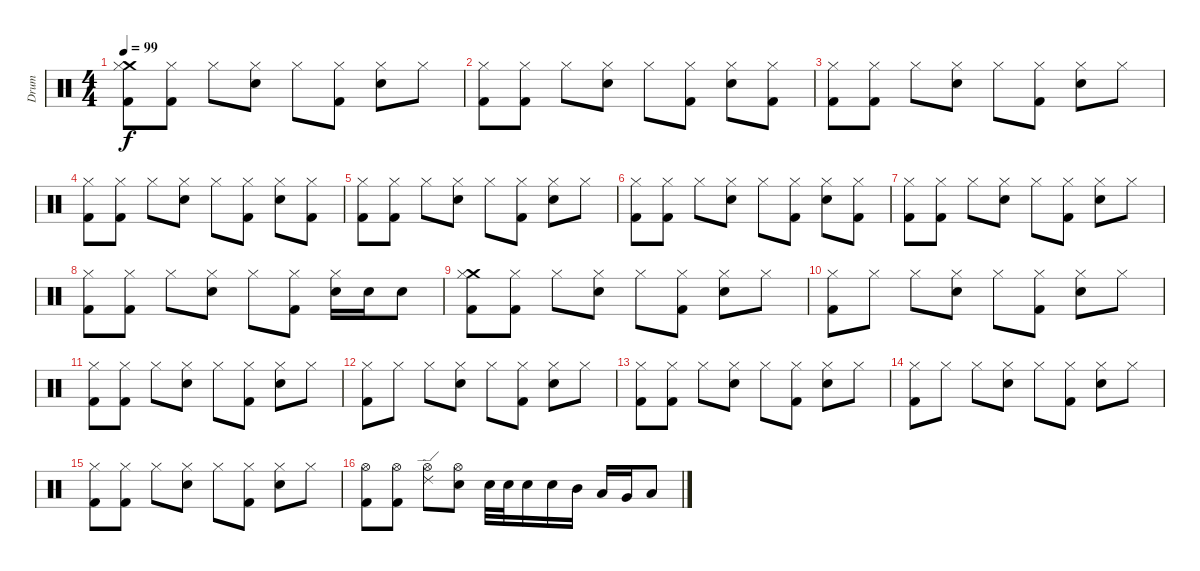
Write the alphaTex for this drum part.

\track ("Drum" "Drum") {instrument percussion}
\staff {score}
\articulation defaults
\ts (4 4)
\tempo 99
\clef neutral
\ks c
("Crash medium (hit)" "Hi-Hat (closed)" "Kick (hit) 2").8{dy f} ("Hi-Hat (closed)" "Kick (hit) 2").8 "Hi-Hat (closed)".8 ("Hi-Hat (closed)" "Electric Snare (hit)").8 "Hi-Hat (closed)".8 ("Hi-Hat (closed)" "Kick (hit) 2").8 ("Hi-Hat (closed)" "Electric Snare (hit)").8 "Hi-Hat (closed)".8 |
("Hi-Hat (closed)" "Kick (hit) 2").8 ("Hi-Hat (closed)" "Kick (hit) 2").8 "Hi-Hat (closed)".8 ("Hi-Hat (closed)" "Electric Snare (hit)").8 "Hi-Hat (closed)".8 ("Hi-Hat (closed)" "Kick (hit) 2").8 ("Hi-Hat (closed)" "Electric Snare (hit)").8 ("Hi-Hat (closed)" "Kick (hit) 2").8 |
("Hi-Hat (closed)" "Kick (hit) 2").8 ("Hi-Hat (closed)" "Kick (hit) 2").8 "Hi-Hat (closed)".8 ("Hi-Hat (closed)" "Electric Snare (hit)").8 "Hi-Hat (closed)".8 ("Hi-Hat (closed)" "Kick (hit) 2").8 ("Hi-Hat (closed)" "Electric Snare (hit)").8 "Hi-Hat (closed)".8 |
("Hi-Hat (closed)" "Kick (hit) 2").8 ("Hi-Hat (closed)" "Kick (hit) 2").8 "Hi-Hat (closed)".8 ("Hi-Hat (closed)" "Electric Snare (hit)").8 "Hi-Hat (closed)".8 ("Hi-Hat (closed)" "Kick (hit) 2").8 ("Hi-Hat (closed)" "Electric Snare (hit)").8 ("Hi-Hat (closed)" "Kick (hit) 2").8 |
("Hi-Hat (closed)" "Kick (hit) 2").8 ("Hi-Hat (closed)" "Kick (hit) 2").8 "Hi-Hat (closed)".8 ("Hi-Hat (closed)" "Electric Snare (hit)").8 "Hi-Hat (closed)".8 ("Hi-Hat (closed)" "Kick (hit) 2").8 ("Hi-Hat (closed)" "Electric Snare (hit)").8 "Hi-Hat (closed)".8 |
("Hi-Hat (closed)" "Kick (hit) 2").8 ("Hi-Hat (closed)" "Kick (hit) 2").8 "Hi-Hat (closed)".8 ("Hi-Hat (closed)" "Electric Snare (hit)").8 "Hi-Hat (closed)".8 ("Hi-Hat (closed)" "Kick (hit) 2").8 ("Hi-Hat (closed)" "Electric Snare (hit)").8 ("Hi-Hat (closed)" "Kick (hit) 2").8 |
("Hi-Hat (closed)" "Kick (hit) 2").8 ("Hi-Hat (closed)" "Kick (hit) 2").8 "Hi-Hat (closed)".8 ("Hi-Hat (closed)" "Electric Snare (hit)").8 "Hi-Hat (closed)".8 ("Hi-Hat (closed)" "Kick (hit) 2").8 ("Hi-Hat (closed)" "Electric Snare (hit)").8 "Hi-Hat (closed)".8 |
("Hi-Hat (closed)" "Kick (hit) 2").8 ("Hi-Hat (closed)" "Kick (hit) 2").8 "Hi-Hat (closed)".8 ("Hi-Hat (closed)" "Electric Snare (hit)").8 "Hi-Hat (closed)".8 ("Hi-Hat (closed)" "Kick (hit) 2").8 ("Hi-Hat (closed)" "Electric Snare (hit)").16 "Electric Snare (hit)".16 "Electric Snare (hit)".8 |
("Crash medium (hit)" "Hi-Hat (closed)" "Kick (hit) 2").8 ("Hi-Hat (closed)" "Kick (hit) 2").8 "Hi-Hat (closed)".8 ("Hi-Hat (closed)" "Electric Snare (hit)").8 "Hi-Hat (closed)".8 ("Hi-Hat (closed)" "Kick (hit) 2").8 ("Hi-Hat (closed)" "Electric Snare (hit)").8 "Hi-Hat (closed)".8 |
("Hi-Hat (closed)" "Kick (hit) 2").8 "Hi-Hat (closed)".8 "Hi-Hat (closed)".8 ("Hi-Hat (closed)" "Electric Snare (hit)").8 "Hi-Hat (closed)".8 ("Hi-Hat (closed)" "Kick (hit) 2").8 ("Hi-Hat (closed)" "Electric Snare (hit)").8 "Hi-Hat (closed)".8 |
("Hi-Hat (closed)" "Kick (hit) 2").8 ("Hi-Hat (closed)" "Kick (hit) 2").8 "Hi-Hat (closed)".8 ("Hi-Hat (closed)" "Electric Snare (hit)").8 "Hi-Hat (closed)".8 ("Hi-Hat (closed)" "Kick (hit) 2").8 ("Hi-Hat (closed)" "Electric Snare (hit)").8 "Hi-Hat (closed)".8 |
("Hi-Hat (closed)" "Kick (hit) 2").8 "Hi-Hat (closed)".8 "Hi-Hat (closed)".8 ("Hi-Hat (closed)" "Electric Snare (hit)").8 "Hi-Hat (closed)".8 ("Hi-Hat (closed)" "Kick (hit) 2").8 ("Hi-Hat (closed)" "Electric Snare (hit)").8 "Hi-Hat (closed)".8 |
("Hi-Hat (closed)" "Kick (hit) 2").8 ("Hi-Hat (closed)" "Kick (hit) 2").8 "Hi-Hat (closed)".8 ("Hi-Hat (closed)" "Electric Snare (hit)").8 "Hi-Hat (closed)".8 ("Hi-Hat (closed)" "Kick (hit) 2").8 ("Hi-Hat (closed)" "Electric Snare (hit)").8 "Hi-Hat (closed)".8 |
("Hi-Hat (closed)" "Kick (hit) 2").8 "Hi-Hat (closed)".8 "Hi-Hat (closed)".8 ("Hi-Hat (closed)" "Electric Snare (hit)").8 "Hi-Hat (closed)".8 ("Hi-Hat (closed)" "Kick (hit) 2").8 ("Hi-Hat (closed)" "Electric Snare (hit)").8 "Hi-Hat (closed)".8 |
("Hi-Hat (closed)" "Kick (hit) 2").8 ("Hi-Hat (closed)" "Kick (hit) 2").8 "Hi-Hat (closed)".8 ("Hi-Hat (closed)" "Electric Snare (hit)").8 "Hi-Hat (closed)".8 ("Hi-Hat (closed)" "Kick (hit) 2").8 ("Hi-Hat (closed)" "Electric Snare (hit)").8 "Hi-Hat (closed)".8 |
("Hi-Hat (open)" "Kick (hit) 2").8 ("Hi-Hat (open)" "Kick (hit) 2").8 ("Ride (edge) 2" "Hi-Hat (open)").8 ("Hi-Hat (open)" "Electric Snare (hit)").8 "Electric Snare (hit)".32 "Electric Snare (hit)".32 "Electric Snare (hit)".16 "Electric Snare (hit)".16 "Mid Tom (hit)".16 "Low Tom (hit)".16 "Very Low Tom (hit)".16 "Low Floor Tom (hit)".8
